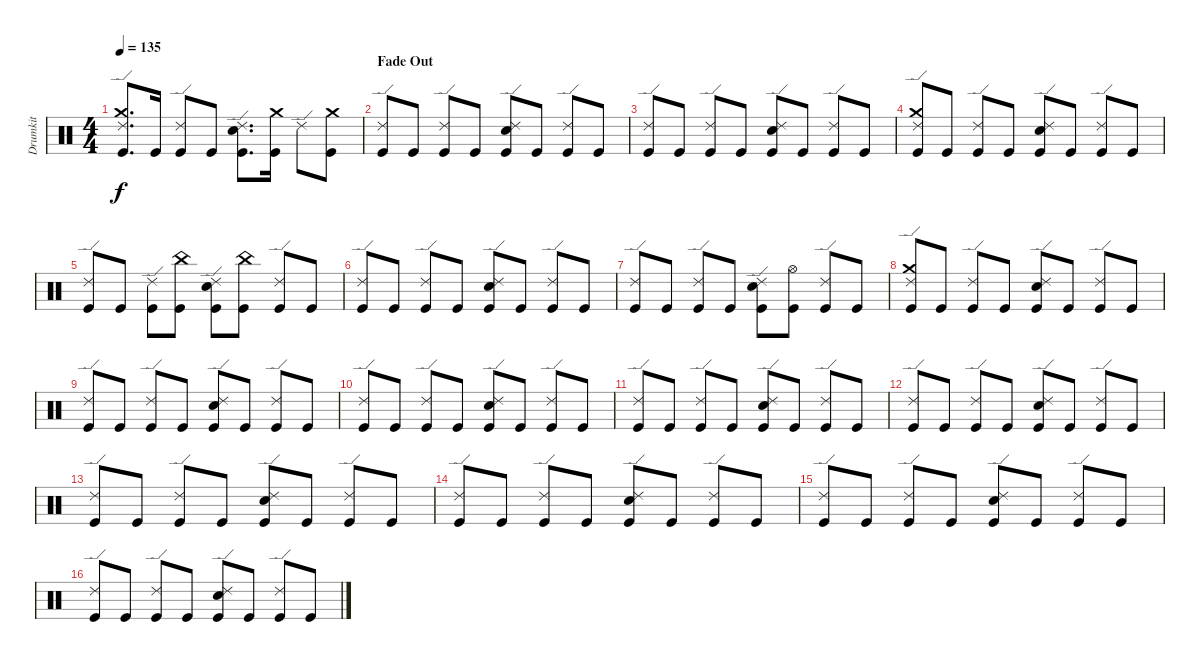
\track ("Drumkit" "Drumkit") {instrument percussion}
\staff {score}
\articulation defaults
\ts (4 4)
\tempo 135
\clef neutral
\ks c
("Kick (hit)" "Crash medium (hit)" "Ride (edge) 2").8{d dy f} "Kick (hit)".16 ("Ride (edge) 2" "Kick (hit)").8 "Kick (hit)".8 ("Kick (hit)" "Ride (edge) 2" "Snare (hit) 2").8{d} ("Kick (hit)" "Crash medium (hit)").16 "Ride (edge) 2".8 ("Kick (hit)" "Crash medium (hit)").8 |
\section ("" "Fade Out")
("Ride (edge) 2" "Kick (hit)").8 "Kick (hit)".8 ("Kick (hit)" "Ride (edge) 2").8 "Kick (hit)".8 ("Kick (hit)" "Ride (edge) 2" "Snare (hit) 2").8 "Kick (hit)".8 ("Kick (hit)" "Ride (edge) 2").8 "Kick (hit)".8 |
("Ride (edge) 2" "Kick (hit)").8 "Kick (hit)".8 ("Kick (hit)" "Ride (edge) 2").8 "Kick (hit)".8 ("Kick (hit)" "Ride (edge) 2" "Snare (hit) 2").8 "Kick (hit)".8 ("Kick (hit)" "Ride (edge) 2").8 "Kick (hit)".8 |
("Ride (edge) 2" "Kick (hit)" "Crash medium (hit)").8 "Kick (hit)".8 ("Kick (hit)" "Ride (edge) 2").8 "Kick (hit)".8 ("Kick (hit)" "Ride (edge) 2" "Snare (hit) 2").8 "Kick (hit)".8 ("Kick (hit)" "Ride (edge) 2").8 "Kick (hit)".8 |
("Ride (edge) 2" "Kick (hit)").8 "Kick (hit)".8 ("Kick (hit)" "Ride (edge) 2").8 ("Kick (hit)" "China (hit)").8 ("Kick (hit)" "Ride (edge) 2" "Snare (hit) 2").8 ("Kick (hit)" "China (hit)").8 ("Kick (hit)" "Ride (edge) 2").8 "Kick (hit)".8 |
("Ride (edge) 2" "Kick (hit)").8 "Kick (hit)".8 ("Kick (hit)" "Ride (edge) 2").8 "Kick (hit)".8 ("Kick (hit)" "Ride (edge) 2" "Snare (hit) 2").8 "Kick (hit)".8 ("Kick (hit)" "Ride (edge) 2").8 "Kick (hit)".8 |
("Ride (edge) 2" "Kick (hit)").8 "Kick (hit)".8 ("Kick (hit)" "Ride (edge) 2").8 "Kick (hit)".8 ("Kick (hit)" "Ride (edge) 2" "Snare (hit) 2").8 ("Kick (hit)" "Hi-Hat (open)").8 ("Kick (hit)" "Ride (edge) 2").8 "Kick (hit)".8 |
("Ride (edge) 2" "Kick (hit)" "Crash medium (hit)").8 "Kick (hit)".8 ("Kick (hit)" "Ride (edge) 2").8 "Kick (hit)".8 ("Kick (hit)" "Ride (edge) 2" "Snare (hit) 2").8 "Kick (hit)".8 ("Kick (hit)" "Ride (edge) 2").8 "Kick (hit)".8 |
("Ride (edge) 2" "Kick (hit)").8 "Kick (hit)".8 ("Kick (hit)" "Ride (edge) 2").8 "Kick (hit)".8 ("Kick (hit)" "Ride (edge) 2" "Snare (hit) 2").8 "Kick (hit)".8 ("Kick (hit)" "Ride (edge) 2").8 "Kick (hit)".8 |
("Ride (edge) 2" "Kick (hit)").8 "Kick (hit)".8 ("Kick (hit)" "Ride (edge) 2").8 "Kick (hit)".8 ("Kick (hit)" "Ride (edge) 2" "Snare (hit) 2").8 "Kick (hit)".8 ("Kick (hit)" "Ride (edge) 2").8 "Kick (hit)".8 |
("Ride (edge) 2" "Kick (hit)").8 "Kick (hit)".8 ("Kick (hit)" "Ride (edge) 2").8 "Kick (hit)".8 ("Kick (hit)" "Ride (edge) 2" "Snare (hit) 2").8 "Kick (hit)".8 ("Kick (hit)" "Ride (edge) 2").8 "Kick (hit)".8 |
("Ride (edge) 2" "Kick (hit)").8 "Kick (hit)".8 ("Kick (hit)" "Ride (edge) 2").8 "Kick (hit)".8 ("Kick (hit)" "Ride (edge) 2" "Snare (hit) 2").8 "Kick (hit)".8 ("Kick (hit)" "Ride (edge) 2").8 "Kick (hit)".8 |
("Ride (edge) 2" "Kick (hit)").8 "Kick (hit)".8 ("Kick (hit)" "Ride (edge) 2").8 "Kick (hit)".8 ("Kick (hit)" "Ride (edge) 2" "Snare (hit) 2").8 "Kick (hit)".8 ("Kick (hit)" "Ride (edge) 2").8 "Kick (hit)".8 |
("Ride (edge) 2" "Kick (hit)").8 "Kick (hit)".8 ("Kick (hit)" "Ride (edge) 2").8 "Kick (hit)".8 ("Kick (hit)" "Ride (edge) 2" "Snare (hit) 2").8 "Kick (hit)".8 ("Kick (hit)" "Ride (edge) 2").8 "Kick (hit)".8 |
("Ride (edge) 2" "Kick (hit)").8 "Kick (hit)".8 ("Kick (hit)" "Ride (edge) 2").8 "Kick (hit)".8 ("Kick (hit)" "Ride (edge) 2" "Snare (hit) 2").8 "Kick (hit)".8 ("Kick (hit)" "Ride (edge) 2").8 "Kick (hit)".8 |
("Ride (edge) 2" "Kick (hit)").8 "Kick (hit)".8 ("Kick (hit)" "Ride (edge) 2").8 "Kick (hit)".8 ("Kick (hit)" "Ride (edge) 2" "Snare (hit) 2").8 "Kick (hit)".8 ("Kick (hit)" "Ride (edge) 2").8 "Kick (hit)".8
